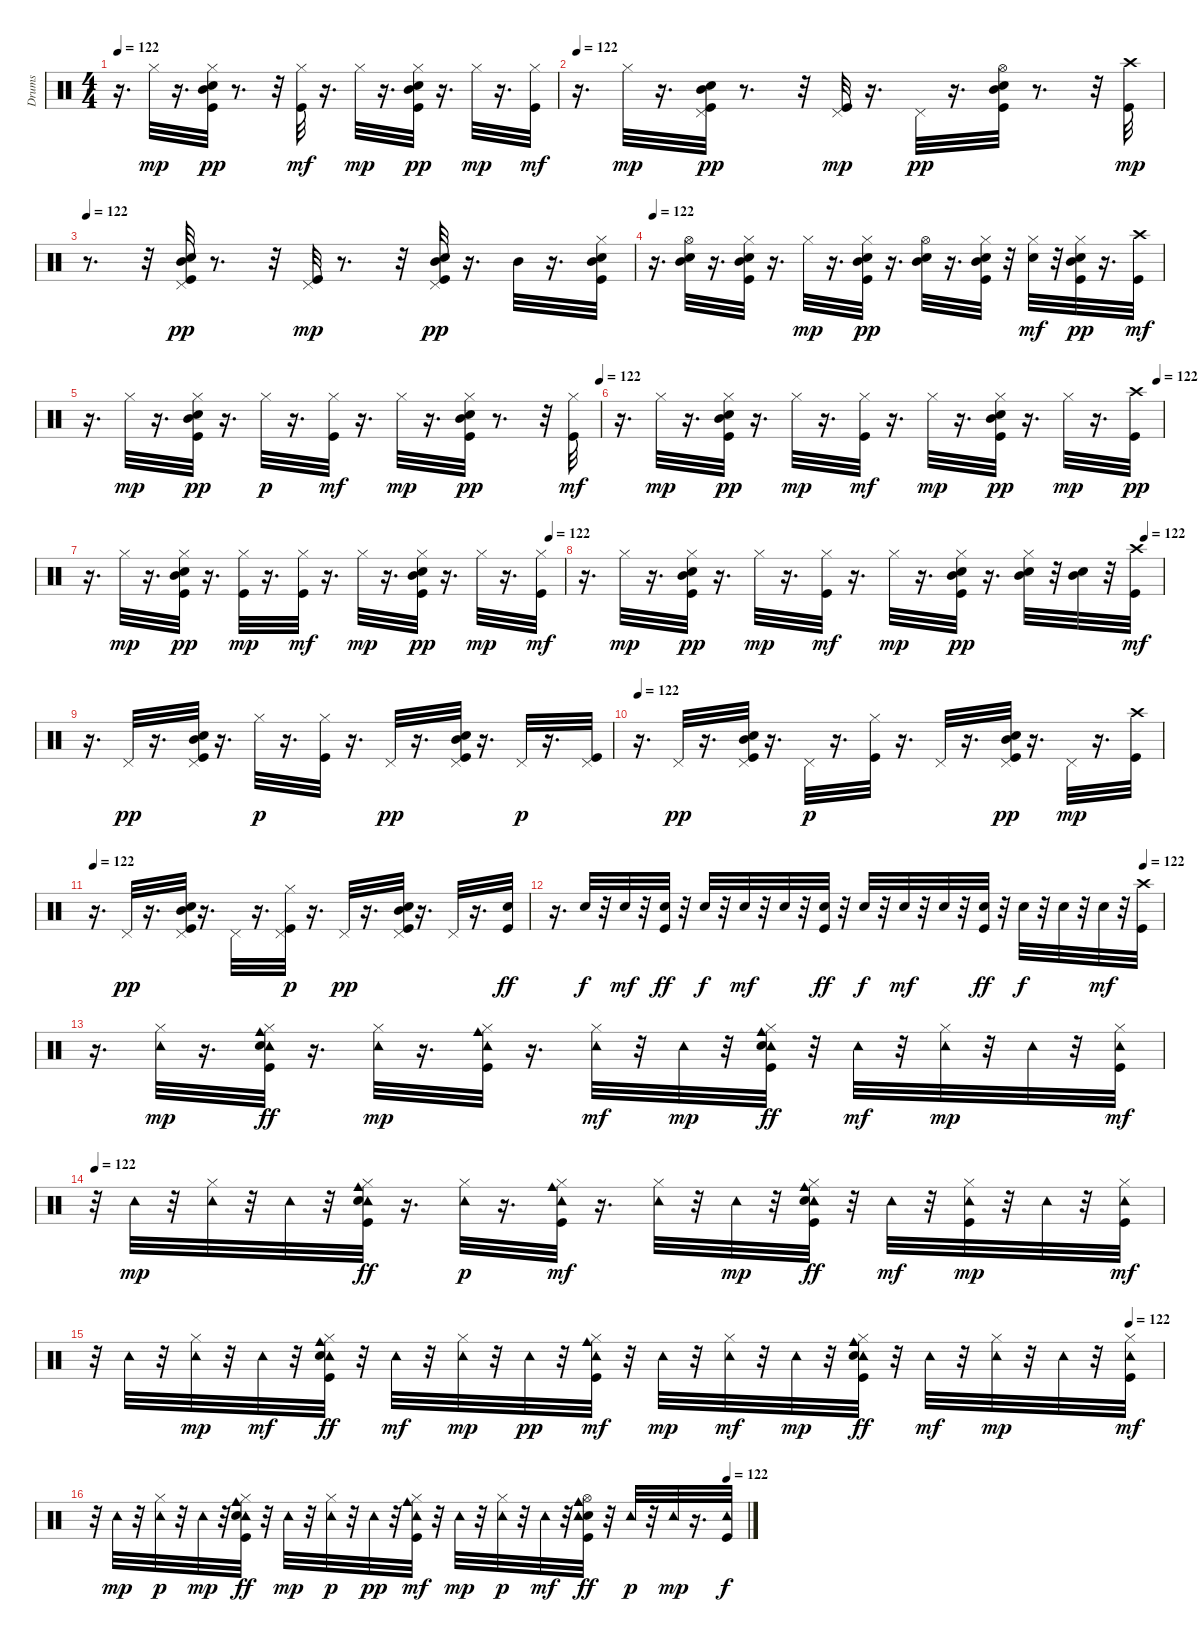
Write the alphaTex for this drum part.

\track ("Drums" "Drums") {instrument percussion}
\staff {score}
\articulation defaults
\ts (4 4)
\tempo 122
\clef neutral
\ks c
r.16{d dy p} "Hi-Hat (closed)".32{dy mp} r.16{d} ("Kick (hit)" "Hi-Hat (closed)" "Snare (hit) 2" "Mid Tom (hit)").32{dy pp} r.8{d} r.32 ("Kick (hit)" "Hi-Hat (closed)").32{dy mf} r.16{d} "Hi-Hat (closed)".32{dy mp} r.16{d} ("Kick (hit)" "Hi-Hat (closed)" "Snare (hit) 2" "Mid Tom (hit)").32{dy pp} r.16{d} "Hi-Hat (closed)".32{dy mp} r.16{d} ("Kick (hit)" "Hi-Hat (closed)").32{dy mf} |
\tempo 122
r.16{d} "Hi-Hat (closed)".32{dy mp} r.16{d} ("Kick (hit)" "Pedal Hi-Hat (hit)" "Snare (hit) 2" "Mid Tom (hit)").32{dy pp} r.8{d} r.32 ("Kick (hit)" "Pedal Hi-Hat (hit)").32{dy mp} r.16{d} "Pedal Hi-Hat (hit)".32{dy pp} r.16{d} ("Kick (hit)" "Hi-Hat (open)" "Snare (hit) 2" "Mid Tom (hit)").32 r.8{d} r.32 ("Kick (hit)" "Crash high (hit)").32{dy mp} |
\tempo 122
r.8{d} r.32 ("Kick (hit)" "Pedal Hi-Hat (hit)" "Snare (hit) 2" "Mid Tom (hit)").32{dy pp} r.8{d} r.32 ("Kick (hit)" "Pedal Hi-Hat (hit)").32{dy mp} r.8{d} r.32 ("Kick (hit)" "Pedal Hi-Hat (hit)" "Snare (hit) 2" "Mid Tom (hit)").32{dy pp} r.16{d} "Mid Tom (hit)".32 r.16{d} ("Kick (hit)" "Hi-Hat (closed)" "Snare (hit) 2" "Mid Tom (hit)").32 |
\tempo 122
r.16{d} ("Snare (hit) 2" "Hi-Hat (open)" "Mid Tom (hit)").32 r.16{d} ("Kick (hit)" "Hi-Hat (closed)" "Snare (hit) 2" "Mid Tom (hit)").32 r.16{d} "Hi-Hat (closed)".32{dy mp} r.16{d} ("Kick (hit)" "Hi-Hat (closed)" "Snare (hit) 2" "Mid Tom (hit)").32{dy pp} r.16{d} ("Snare (hit) 2" "Hi-Hat (open)" "Mid Tom (hit)").32 r.16{d} ("Kick (hit)" "Hi-Hat (closed)" "Snare (hit) 2" "Mid Tom (hit)").32 r.32 ("Snare (hit) 2" "Hi-Hat (closed)").32{dy mf} r.32 ("Kick (hit)" "Hi-Hat (closed)" "Snare (hit) 2" "Mid Tom (hit)").32{dy pp} r.16{d} ("Kick (hit)" "Crash high (hit)").32{dy mf} |
\tempo (122 1)
r.16{d} "Hi-Hat (closed)".32{dy mp} r.16{d} ("Kick (hit)" "Hi-Hat (closed)" "Snare (hit) 2" "Mid Tom (hit)").32{dy pp} r.16{d} "Hi-Hat (closed)".32{dy p} r.16{d} ("Kick (hit)" "Hi-Hat (closed)").32{dy mf} r.16{d} "Hi-Hat (closed)".32{dy mp} r.16{d} ("Kick (hit)" "Hi-Hat (closed)" "Snare (hit) 2" "Mid Tom (hit)").32{dy pp} r.8{d} r.32 ("Kick (hit)" "Hi-Hat (closed)").32{dy mf} |
\tempo (122 0.9895833333333334)
r.16{d} "Hi-Hat (closed)".32{dy mp} r.16{d} ("Kick (hit)" "Hi-Hat (closed)" "Snare (hit) 2" "Mid Tom (hit)").32{dy pp} r.16{d} "Hi-Hat (closed)".32{dy mp} r.16{d} ("Kick (hit)" "Hi-Hat (closed)").32{dy mf} r.16{d} "Hi-Hat (closed)".32{dy mp} r.16{d} ("Kick (hit)" "Hi-Hat (closed)" "Snare (hit) 2" "Mid Tom (hit)").32{dy pp} r.16{d} "Hi-Hat (closed)".32{dy mp} r.16{d} ("Kick (hit)" "Crash high (hit)").32{dy pp} |
\tempo (122 0.96875)
r.16{d} "Hi-Hat (closed)".32{dy mp} r.16{d} ("Kick (hit)" "Hi-Hat (closed)" "Snare (hit) 2" "Mid Tom (hit)").32{dy pp} r.16{d} ("Kick (hit)" "Hi-Hat (closed)").32{dy mp} r.16{d} ("Kick (hit)" "Hi-Hat (closed)").32{dy mf} r.16{d} "Hi-Hat (closed)".32{dy mp} r.16{d} ("Kick (hit)" "Hi-Hat (closed)" "Snare (hit) 2" "Mid Tom (hit)").32{dy pp} r.16{d} "Hi-Hat (closed)".32{dy mp} r.16{d} ("Kick (hit)" "Hi-Hat (closed)").32{dy mf} |
\tempo (122 0.96875)
r.16{d} "Hi-Hat (closed)".32{dy mp} r.16{d} ("Kick (hit)" "Hi-Hat (closed)" "Snare (hit) 2" "Mid Tom (hit)").32{dy pp} r.16{d} "Hi-Hat (closed)".32{dy mp} r.16{d} ("Kick (hit)" "Hi-Hat (closed)").32{dy mf} r.16{d} "Hi-Hat (closed)".32{dy mp} r.16{d} ("Kick (hit)" "Hi-Hat (closed)" "Snare (hit) 2" "Mid Tom (hit)").32{dy pp} r.16{d} ("Snare (hit) 2" "Hi-Hat (closed)" "Mid Tom (hit)").32 r.32 ("Snare (hit) 2" "Mid Tom (hit)").32 r.32 ("Kick (hit)" "Crash high (hit)").32{dy mf} |
r.16{d} "Pedal Hi-Hat (hit)".32{dy pp} r.16{d} ("Kick (hit)" "Pedal Hi-Hat (hit)" "Snare (hit) 2" "Mid Tom (hit)").32 r.16{d} "Hi-Hat (closed)".32{dy p} r.16{d} ("Kick (hit)" "Hi-Hat (closed)").32 r.16{d} "Pedal Hi-Hat (hit)".32{dy pp} r.16{d} ("Kick (hit)" "Pedal Hi-Hat (hit)" "Snare (hit) 2" "Mid Tom (hit)").32 r.16{d} "Pedal Hi-Hat (hit)".32{dy p} r.16{d} ("Kick (hit)" "Pedal Hi-Hat (hit)").32 |
\tempo 122
r.16{d} "Pedal Hi-Hat (hit)".32{dy pp} r.16{d} ("Kick (hit)" "Pedal Hi-Hat (hit)" "Snare (hit) 2" "Mid Tom (hit)").32 r.16{d} "Pedal Hi-Hat (hit)".32{dy p} r.16{d} ("Kick (hit)" "Hi-Hat (closed)").32 r.16{d} "Pedal Hi-Hat (hit)".32 r.16{d} ("Kick (hit)" "Pedal Hi-Hat (hit)" "Snare (hit) 2" "Mid Tom (hit)").32{dy pp} r.16{d} "Pedal Hi-Hat (hit)".32{dy mp} r.16{d} ("Kick (hit)" "Crash high (hit)").32 |
\tempo 122
r.16{d} "Pedal Hi-Hat (hit)".32{dy pp} r.16{d} ("Kick (hit)" "Pedal Hi-Hat (hit)" "Snare (hit) 2" "Mid Tom (hit)").32 r.16{d} "Pedal Hi-Hat (hit)".32 r.16{d} ("Kick (hit)" "Hi-Hat (closed)" "Pedal Hi-Hat (hit)").32{dy p} r.16{d} "Pedal Hi-Hat (hit)".32{dy pp} r.16{d} ("Kick (hit)" "Pedal Hi-Hat (hit)" "Snare (hit) 2" "Mid Tom (hit)").32 r.16{d} "Pedal Hi-Hat (hit)".32 r.16{d} ("Kick (hit)" "Snare (hit) 2").32{dy ff} |
\tempo (122 0.96875)
r.16{d} "Snare (hit) 2".32{dy f} r.32 "Snare (hit) 2".32{dy mf} r.32 ("Kick (hit)" "Snare (hit) 2").32{dy ff} r.32 "Snare (hit) 2".32{dy f} r.32 "Snare (hit) 2".32{dy mf} r.32 "Snare (hit) 2".32 r.32 ("Kick (hit)" "Snare (hit) 2").32{dy ff} r.32 "Snare (hit) 2".32{dy f} r.32 "Snare (hit) 2".32{dy mf} r.32 "Snare (hit) 2".32 r.32 ("Kick (hit)" "Snare (hit) 2").32{dy ff} r.32 "Snare (hit) 2".32{dy f} r.32 "Snare (hit) 2".32 r.32 "Snare (hit) 2".32{dy mf} r.32 ("Kick (hit)" "Crash high (hit)").32 |
r.16{d} ("Hi-Hat (closed)" "Tambourine (hit)").32{dy mp} r.16{d} ("Kick (hit)" "Tambourine (hit)" "Hi-Hat (closed)" "Snare (hit) 2" "Cowbell medium (hit)").32{dy ff} r.16{d} ("Hi-Hat (closed)" "Tambourine (hit)").32{dy mp} r.16{d} ("Kick (hit)" "Tambourine (hit)" "Hi-Hat (closed)" "Cowbell medium (hit)").32 r.16{d} ("Hi-Hat (closed)" "Tambourine (hit)").32{dy mf} r.32 "Tambourine (hit)".32{dy mp} r.32 ("Kick (hit)" "Tambourine (hit)" "Hi-Hat (closed)" "Snare (hit) 2" "Cowbell medium (hit)").32{dy ff} r.32 "Tambourine (hit)".32{dy mf} r.32 ("Hi-Hat (closed)" "Tambourine (hit)").32{dy mp} r.32 "Tambourine (hit)".32 r.32 ("Kick (hit)" "Hi-Hat (closed)" "Tambourine (hit)").32{dy mf} |
\tempo 122
r.32 "Tambourine (hit)".32{dy mp} r.32 ("Hi-Hat (closed)" "Tambourine (hit)").32 r.32 "Tambourine (hit)".32 r.32 ("Kick (hit)" "Tambourine (hit)" "Hi-Hat (closed)" "Snare (hit) 2" "Cowbell medium (hit)").32{dy ff} r.16{d} ("Hi-Hat (closed)" "Tambourine (hit)").32{dy p} r.16{d} ("Kick (hit)" "Tambourine (hit)" "Hi-Hat (closed)" "Cowbell medium (hit)").32{dy mf} r.16{d} ("Hi-Hat (closed)" "Tambourine (hit)").32 r.32 "Tambourine (hit)".32{dy mp} r.32 ("Kick (hit)" "Tambourine (hit)" "Hi-Hat (closed)" "Snare (hit) 2" "Cowbell medium (hit)").32{dy ff} r.32 "Tambourine (hit)".32{dy mf} r.32 ("Kick (hit)" "Hi-Hat (closed)" "Tambourine (hit)").32{dy mp} r.32 "Tambourine (hit)".32 r.32 ("Kick (hit)" "Hi-Hat (closed)" "Tambourine (hit)").32{dy mf} |
\tempo (122 0.96875)
r.32 "Tambourine (hit)".32 r.32 ("Hi-Hat (closed)" "Tambourine (hit)").32{dy mp} r.32 "Tambourine (hit)".32{dy mf} r.32 ("Kick (hit)" "Tambourine (hit)" "Hi-Hat (closed)" "Snare (hit) 2" "Cowbell medium (hit)").32{dy ff} r.32 "Tambourine (hit)".32{dy mf} r.32 ("Hi-Hat (closed)" "Tambourine (hit)").32{dy mp} r.32 "Tambourine (hit)".32{dy pp} r.32 ("Kick (hit)" "Tambourine (hit)" "Hi-Hat (closed)" "Cowbell medium (hit)").32{dy mf} r.32 "Tambourine (hit)".32{dy mp} r.32 ("Hi-Hat (closed)" "Tambourine (hit)").32{dy mf} r.32 "Tambourine (hit)".32{dy mp} r.32 ("Kick (hit)" "Tambourine (hit)" "Hi-Hat (closed)" "Snare (hit) 2" "Cowbell medium (hit)").32{dy ff} r.32 "Tambourine (hit)".32{dy mf} r.32 ("Hi-Hat (closed)" "Tambourine (hit)").32{dy mp} r.32 "Tambourine (hit)".32 r.32 ("Kick (hit)" "Hi-Hat (closed)" "Tambourine (hit)").32{dy mf} |
\tempo (122 0.96875)
r.32 "Tambourine (hit)".32{dy mp} r.32 ("Hi-Hat (closed)" "Tambourine (hit)").32{dy p} r.32 "Tambourine (hit)".32{dy mp} r.32 ("Kick (hit)" "Tambourine (hit)" "Hi-Hat (closed)" "Snare (hit) 2" "Cowbell medium (hit)").32{dy ff} r.32 "Tambourine (hit)".32{dy mp} r.32 ("Hi-Hat (closed)" "Tambourine (hit)").32{dy p} r.32 "Tambourine (hit)".32{dy pp} r.32 ("Kick (hit)" "Tambourine (hit)" "Hi-Hat (closed)" "Cowbell medium (hit)").32{dy mf} r.32 "Tambourine (hit)".32{dy mp} r.32 ("Hi-Hat (closed)" "Tambourine (hit)").32{dy p} r.32 "Tambourine (hit)".32{dy mf} r.32 ("Kick (hit)" "Snare (hit) 2" "Tambourine (hit)" "Hi-Hat (open)" "Cowbell medium (hit)").32{dy ff} r.32 "Tambourine (hit)".32{dy p} r.32 "Tambourine (hit)".32{dy mp} r.16{d} ("Kick (hit)" "Tambourine (hit)").32{dy f}
